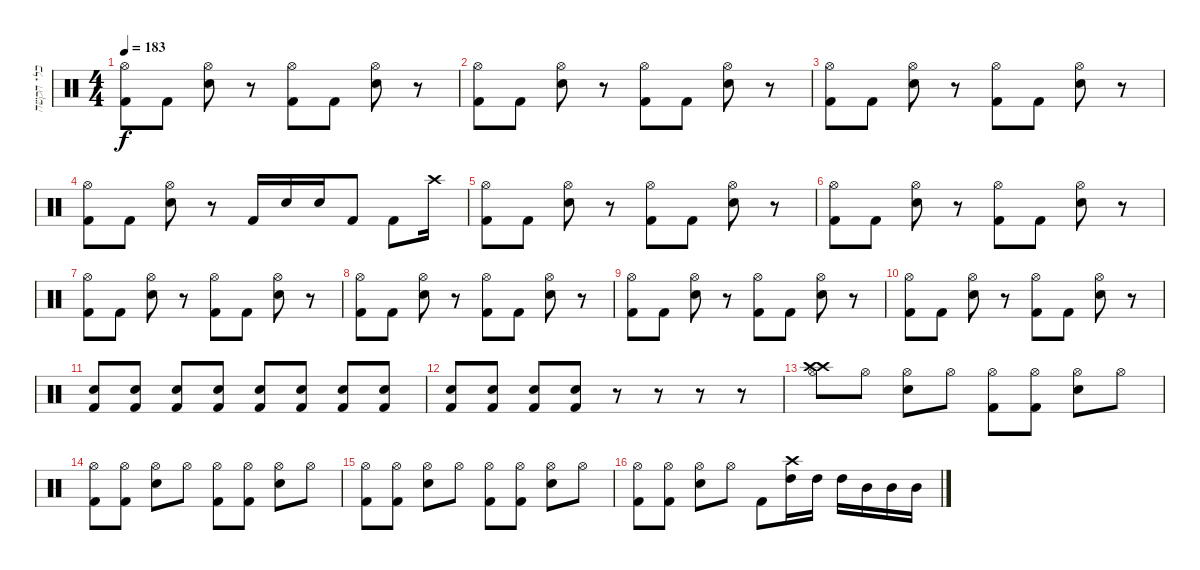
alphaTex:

\track ("כלי הקשה" "כלי הקשה") {instrument percussion}
\staff {score}
\articulation defaults
\ts (4 4)
\tempo 183
\clef neutral
\ks c
("Hi-Hat (open)" "Kick (hit) 2").8{dy f} "Kick (hit) 2".8 ("Hi-Hat (open)" "Snare (hit) 2").8 r.8 ("Hi-Hat (open)" "Kick (hit) 2").8 "Kick (hit) 2".8 ("Hi-Hat (open)" "Snare (hit) 2").8 r.8 |
("Hi-Hat (open)" "Kick (hit) 2").8 "Kick (hit) 2".8 ("Hi-Hat (open)" "Snare (hit) 2").8 r.8 ("Hi-Hat (open)" "Kick (hit) 2").8 "Kick (hit) 2".8 ("Hi-Hat (open)" "Snare (hit) 2").8 r.8 |
("Hi-Hat (open)" "Kick (hit) 2").8 "Kick (hit) 2".8 ("Hi-Hat (open)" "Snare (hit) 2").8 r.8 ("Hi-Hat (open)" "Kick (hit) 2").8 "Kick (hit) 2".8 ("Hi-Hat (open)" "Snare (hit) 2").8 r.8 |
("Hi-Hat (open)" "Kick (hit) 2").8 "Kick (hit) 2".8 ("Hi-Hat (open)" "Snare (hit) 2").8 r.8 "Kick (hit) 2".16 "Snare (hit) 2".16 "Snare (hit) 2".16 "Kick (hit) 2".8 "Kick (hit) 2".8 "Crash high (hit)".16 |
("Hi-Hat (open)" "Kick (hit) 2").8 "Kick (hit) 2".8 ("Hi-Hat (open)" "Snare (hit) 2").8 r.8 ("Hi-Hat (open)" "Kick (hit) 2").8 "Kick (hit) 2".8 ("Hi-Hat (open)" "Snare (hit) 2").8 r.8 |
("Hi-Hat (open)" "Kick (hit) 2").8 "Kick (hit) 2".8 ("Hi-Hat (open)" "Snare (hit) 2").8 r.8 ("Hi-Hat (open)" "Kick (hit) 2").8 "Kick (hit) 2".8 ("Hi-Hat (open)" "Snare (hit) 2").8 r.8 |
("Hi-Hat (open)" "Kick (hit) 2").8 "Kick (hit) 2".8 ("Hi-Hat (open)" "Snare (hit) 2").8 r.8 ("Hi-Hat (open)" "Kick (hit) 2").8 "Kick (hit) 2".8 ("Hi-Hat (open)" "Snare (hit) 2").8 r.8 |
("Hi-Hat (open)" "Kick (hit) 2").8 "Kick (hit) 2".8 ("Hi-Hat (open)" "Snare (hit) 2").8 r.8 ("Hi-Hat (open)" "Kick (hit) 2").8 "Kick (hit) 2".8 ("Hi-Hat (open)" "Snare (hit) 2").8 r.8 |
("Hi-Hat (open)" "Kick (hit) 2").8 "Kick (hit) 2".8 ("Hi-Hat (open)" "Snare (hit) 2").8 r.8 ("Hi-Hat (open)" "Kick (hit) 2").8 "Kick (hit) 2".8 ("Hi-Hat (open)" "Snare (hit) 2").8 r.8 |
("Hi-Hat (open)" "Kick (hit) 2").8 "Kick (hit) 2".8 ("Hi-Hat (open)" "Snare (hit) 2").8 r.8 ("Hi-Hat (open)" "Kick (hit) 2").8 "Kick (hit) 2".8 ("Hi-Hat (open)" "Snare (hit) 2").8 r.8 |
("Snare (hit) 2" "Kick (hit) 2").8 ("Snare (hit) 2" "Kick (hit) 2").8 ("Snare (hit) 2" "Kick (hit) 2").8 ("Snare (hit) 2" "Kick (hit) 2").8 ("Snare (hit) 2" "Kick (hit) 2").8 ("Snare (hit) 2" "Kick (hit) 2").8 ("Snare (hit) 2" "Kick (hit) 2").8 ("Snare (hit) 2" "Kick (hit) 2").8 |
("Snare (hit) 2" "Kick (hit) 2").8 ("Snare (hit) 2" "Kick (hit) 2").8 ("Snare (hit) 2" "Kick (hit) 2").8 ("Snare (hit) 2" "Kick (hit) 2").8 r.8 r.8 r.8 r.8 |
("Crash high (hit)" "Crash high (hit)" "Hi-Hat (open)").8 "Hi-Hat (open)".8 ("Hi-Hat (open)" "Snare (hit) 2").8 "Hi-Hat (open)".8 ("Hi-Hat (open)" "Kick (hit) 2").8 ("Hi-Hat (open)" "Kick (hit) 2").8 ("Hi-Hat (open)" "Snare (hit) 2").8 "Hi-Hat (open)".8 |
("Hi-Hat (open)" "Kick (hit) 2").8 ("Hi-Hat (open)" "Kick (hit) 2").8 ("Hi-Hat (open)" "Snare (hit) 2").8 "Hi-Hat (open)".8 ("Hi-Hat (open)" "Kick (hit) 2").8 ("Hi-Hat (open)" "Kick (hit) 2").8 ("Hi-Hat (open)" "Snare (hit) 2").8 "Hi-Hat (open)".8 |
("Hi-Hat (open)" "Kick (hit) 2").8 ("Hi-Hat (open)" "Kick (hit) 2").8 ("Hi-Hat (open)" "Snare (hit) 2").8 "Hi-Hat (open)".8 ("Hi-Hat (open)" "Kick (hit) 2").8 ("Hi-Hat (open)" "Kick (hit) 2").8 ("Hi-Hat (open)" "Snare (hit) 2").8 "Hi-Hat (open)".8 |
("Hi-Hat (open)" "Kick (hit) 2").8 ("Hi-Hat (open)" "Kick (hit) 2").8 ("Hi-Hat (open)" "Snare (hit) 2").8 "Hi-Hat (open)".8 "Kick (hit) 2".8 ("Crash high (hit)" "High Tom (hit)").16 "High Tom (hit)".16 "High Tom (hit)".16 "Mid Tom (hit)".16 "Mid Tom (hit)".16 "Mid Tom (hit)".16
